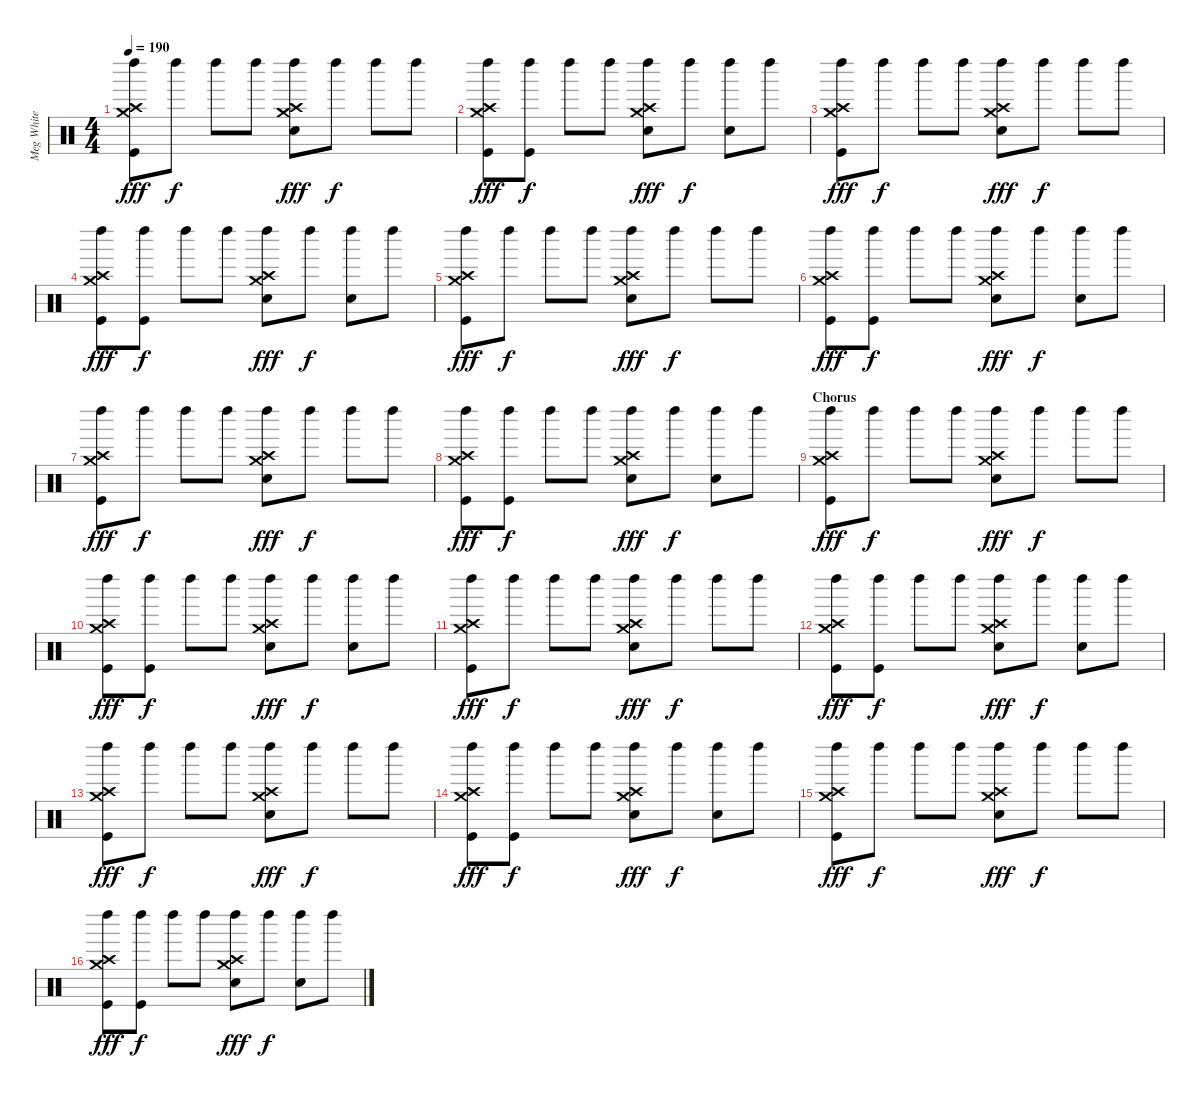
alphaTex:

\track ("Meg White" "Meg White") {instrument percussion}
\staff {score}
\articulation defaults
\ts (4 4)
\tempo 190
\clef neutral
\ks c
("Crash high (hit)" "Crash medium (hit)" "Kick (hit)" "Left Maraca (hit)").8{dy fff} "Left Maraca (hit)".8{dy f} "Left Maraca (hit)".8 "Left Maraca (hit)".8 ("Crash high (hit)" "Crash medium (hit)" "Snare (hit) 2" "Left Maraca (hit)").8{dy fff} "Left Maraca (hit)".8{dy f} "Left Maraca (hit)".8 "Left Maraca (hit)".8 |
("Crash high (hit)" "Crash medium (hit)" "Kick (hit)" "Left Maraca (hit)").8{dy fff} ("Kick (hit)" "Left Maraca (hit)").8{dy f} "Left Maraca (hit)".8 "Left Maraca (hit)".8 ("Crash high (hit)" "Crash medium (hit)" "Snare (hit) 2" "Left Maraca (hit)").8{dy fff} "Left Maraca (hit)".8{dy f} ("Snare (hit) 2" "Left Maraca (hit)").8 "Left Maraca (hit)".8 |
("Crash high (hit)" "Crash medium (hit)" "Kick (hit)" "Left Maraca (hit)").8{dy fff} "Left Maraca (hit)".8{dy f} "Left Maraca (hit)".8 "Left Maraca (hit)".8 ("Crash high (hit)" "Crash medium (hit)" "Snare (hit) 2" "Left Maraca (hit)").8{dy fff} "Left Maraca (hit)".8{dy f} "Left Maraca (hit)".8 "Left Maraca (hit)".8 |
("Crash high (hit)" "Crash medium (hit)" "Kick (hit)" "Left Maraca (hit)").8{dy fff} ("Kick (hit)" "Left Maraca (hit)").8{dy f} "Left Maraca (hit)".8 "Left Maraca (hit)".8 ("Crash high (hit)" "Crash medium (hit)" "Snare (hit) 2" "Left Maraca (hit)").8{dy fff} "Left Maraca (hit)".8{dy f} ("Snare (hit) 2" "Left Maraca (hit)").8 "Left Maraca (hit)".8 |
("Crash high (hit)" "Crash medium (hit)" "Kick (hit)" "Left Maraca (hit)").8{dy fff} "Left Maraca (hit)".8{dy f} "Left Maraca (hit)".8 "Left Maraca (hit)".8 ("Crash high (hit)" "Crash medium (hit)" "Snare (hit) 2" "Left Maraca (hit)").8{dy fff} "Left Maraca (hit)".8{dy f} "Left Maraca (hit)".8 "Left Maraca (hit)".8 |
("Crash high (hit)" "Crash medium (hit)" "Kick (hit)" "Left Maraca (hit)").8{dy fff} ("Kick (hit)" "Left Maraca (hit)").8{dy f} "Left Maraca (hit)".8 "Left Maraca (hit)".8 ("Crash high (hit)" "Crash medium (hit)" "Snare (hit) 2" "Left Maraca (hit)").8{dy fff} "Left Maraca (hit)".8{dy f} ("Snare (hit) 2" "Left Maraca (hit)").8 "Left Maraca (hit)".8 |
("Crash high (hit)" "Crash medium (hit)" "Kick (hit)" "Left Maraca (hit)").8{dy fff} "Left Maraca (hit)".8{dy f} "Left Maraca (hit)".8 "Left Maraca (hit)".8 ("Crash high (hit)" "Crash medium (hit)" "Snare (hit) 2" "Left Maraca (hit)").8{dy fff} "Left Maraca (hit)".8{dy f} "Left Maraca (hit)".8 "Left Maraca (hit)".8 |
("Crash high (hit)" "Crash medium (hit)" "Kick (hit)" "Left Maraca (hit)").8{dy fff} ("Kick (hit)" "Left Maraca (hit)").8{dy f} "Left Maraca (hit)".8 "Left Maraca (hit)".8 ("Crash high (hit)" "Crash medium (hit)" "Snare (hit) 2" "Left Maraca (hit)").8{dy fff} "Left Maraca (hit)".8{dy f} ("Snare (hit) 2" "Left Maraca (hit)").8 "Left Maraca (hit)".8 |
\section ("" "Chorus")
("Crash high (hit)" "Crash medium (hit)" "Kick (hit)" "Left Maraca (hit)").8{dy fff} "Left Maraca (hit)".8{dy f} "Left Maraca (hit)".8 "Left Maraca (hit)".8 ("Crash high (hit)" "Crash medium (hit)" "Snare (hit) 2" "Left Maraca (hit)").8{dy fff} "Left Maraca (hit)".8{dy f} "Left Maraca (hit)".8 "Left Maraca (hit)".8 |
("Crash high (hit)" "Crash medium (hit)" "Kick (hit)" "Left Maraca (hit)").8{dy fff} ("Kick (hit)" "Left Maraca (hit)").8{dy f} "Left Maraca (hit)".8 "Left Maraca (hit)".8 ("Crash high (hit)" "Crash medium (hit)" "Snare (hit) 2" "Left Maraca (hit)").8{dy fff} "Left Maraca (hit)".8{dy f} ("Snare (hit) 2" "Left Maraca (hit)").8 "Left Maraca (hit)".8 |
("Crash high (hit)" "Crash medium (hit)" "Kick (hit)" "Left Maraca (hit)").8{dy fff} "Left Maraca (hit)".8{dy f} "Left Maraca (hit)".8 "Left Maraca (hit)".8 ("Crash high (hit)" "Crash medium (hit)" "Snare (hit) 2" "Left Maraca (hit)").8{dy fff} "Left Maraca (hit)".8{dy f} "Left Maraca (hit)".8 "Left Maraca (hit)".8 |
("Crash high (hit)" "Crash medium (hit)" "Kick (hit)" "Left Maraca (hit)").8{dy fff} ("Kick (hit)" "Left Maraca (hit)").8{dy f} "Left Maraca (hit)".8 "Left Maraca (hit)".8 ("Crash high (hit)" "Crash medium (hit)" "Snare (hit) 2" "Left Maraca (hit)").8{dy fff} "Left Maraca (hit)".8{dy f} ("Snare (hit) 2" "Left Maraca (hit)").8 "Left Maraca (hit)".8 |
("Crash high (hit)" "Crash medium (hit)" "Kick (hit)" "Left Maraca (hit)").8{dy fff} "Left Maraca (hit)".8{dy f} "Left Maraca (hit)".8 "Left Maraca (hit)".8 ("Crash high (hit)" "Crash medium (hit)" "Snare (hit) 2" "Left Maraca (hit)").8{dy fff} "Left Maraca (hit)".8{dy f} "Left Maraca (hit)".8 "Left Maraca (hit)".8 |
("Crash high (hit)" "Crash medium (hit)" "Kick (hit)" "Left Maraca (hit)").8{dy fff} ("Kick (hit)" "Left Maraca (hit)").8{dy f} "Left Maraca (hit)".8 "Left Maraca (hit)".8 ("Crash high (hit)" "Crash medium (hit)" "Snare (hit) 2" "Left Maraca (hit)").8{dy fff} "Left Maraca (hit)".8{dy f} ("Snare (hit) 2" "Left Maraca (hit)").8 "Left Maraca (hit)".8 |
("Crash high (hit)" "Crash medium (hit)" "Kick (hit)" "Left Maraca (hit)").8{dy fff} "Left Maraca (hit)".8{dy f} "Left Maraca (hit)".8 "Left Maraca (hit)".8 ("Crash high (hit)" "Crash medium (hit)" "Snare (hit) 2" "Left Maraca (hit)").8{dy fff} "Left Maraca (hit)".8{dy f} "Left Maraca (hit)".8 "Left Maraca (hit)".8 |
("Crash high (hit)" "Crash medium (hit)" "Kick (hit)" "Left Maraca (hit)").8{dy fff} ("Kick (hit)" "Left Maraca (hit)").8{dy f} "Left Maraca (hit)".8 "Left Maraca (hit)".8 ("Crash high (hit)" "Crash medium (hit)" "Snare (hit) 2" "Left Maraca (hit)").8{dy fff} "Left Maraca (hit)".8{dy f} ("Snare (hit) 2" "Left Maraca (hit)").8 "Left Maraca (hit)".8
